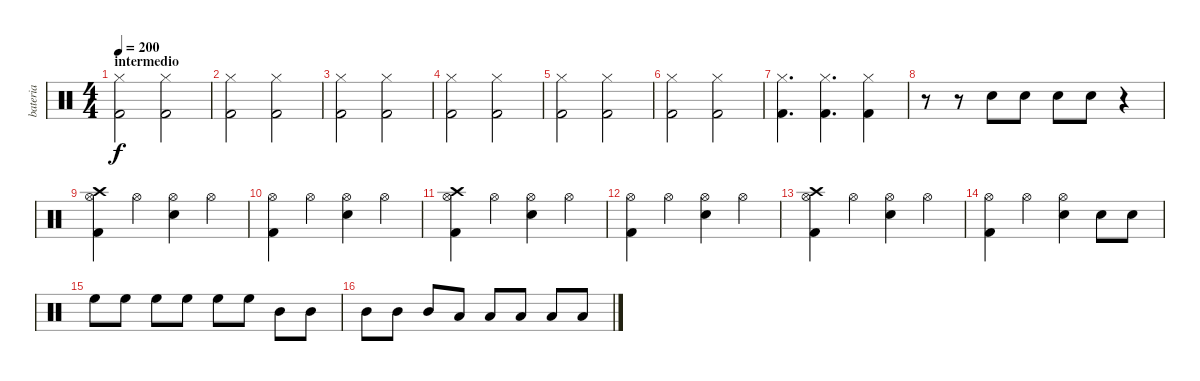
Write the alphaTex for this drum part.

\track ("bateria" "bateria") {instrument percussion}
\staff {score}
\articulation defaults
\ts (4 4)
\section ("" "intermedio")
\tempo 200
\clef neutral
\ks c
("Kick (hit) 2" "Hi-Hat (closed)").2{dy f} ("Kick (hit) 2" "Hi-Hat (closed)").2 |
("Kick (hit) 2" "Hi-Hat (closed)").2 ("Kick (hit) 2" "Hi-Hat (closed)").2 |
("Kick (hit) 2" "Hi-Hat (closed)").2 ("Kick (hit) 2" "Hi-Hat (closed)").2 |
("Kick (hit) 2" "Hi-Hat (closed)").2 ("Kick (hit) 2" "Hi-Hat (closed)").2 |
("Kick (hit) 2" "Hi-Hat (closed)").2 ("Kick (hit) 2" "Hi-Hat (closed)").2 |
("Kick (hit) 2" "Hi-Hat (closed)").2 ("Kick (hit) 2" "Hi-Hat (closed)").2 |
("Kick (hit) 2" "Hi-Hat (closed)").4{d} ("Kick (hit) 2" "Hi-Hat (closed)").4{d} ("Kick (hit) 2" "Hi-Hat (closed)").4 |
r.8 r.8 "Electric Snare (hit)".8 "Electric Snare (hit)".8 "Electric Snare (hit)".8 "Electric Snare (hit)".8 r.4 |
("Hi-Hat (open)" "Kick (hit) 2" "Crash high (hit)").4 "Hi-Hat (open)".4 ("Hi-Hat (open)" "Electric Snare (hit)").4 "Hi-Hat (open)".4 |
("Hi-Hat (open)" "Kick (hit) 2").4 "Hi-Hat (open)".4 ("Hi-Hat (open)" "Electric Snare (hit)").4 "Hi-Hat (open)".4 |
("Hi-Hat (open)" "Kick (hit) 2" "Crash high (hit)").4 "Hi-Hat (open)".4 ("Hi-Hat (open)" "Electric Snare (hit)").4 "Hi-Hat (open)".4 |
("Hi-Hat (open)" "Kick (hit) 2").4 "Hi-Hat (open)".4 ("Hi-Hat (open)" "Electric Snare (hit)").4 "Hi-Hat (open)".4 |
("Hi-Hat (open)" "Kick (hit) 2" "Crash high (hit)").4 "Hi-Hat (open)".4 ("Hi-Hat (open)" "Electric Snare (hit)").4 "Hi-Hat (open)".4 |
("Hi-Hat (open)" "Kick (hit) 2").4 "Hi-Hat (open)".4 ("Hi-Hat (open)" "Electric Snare (hit)").4 "Electric Snare (hit)".8 "Electric Snare (hit)".8 |
"High Floor Tom (hit)".8 "High Floor Tom (hit)".8 "High Floor Tom (hit)".8 "High Floor Tom (hit)".8 "High Floor Tom (hit)".8 "High Floor Tom (hit)".8 "Mid Tom (hit)".8 "Mid Tom (hit)".8 |
"Mid Tom (hit)".8 "Mid Tom (hit)".8 "Mid Tom (hit)".8 "Low Tom (hit)".8 "Low Tom (hit)".8 "Low Tom (hit)".8 "Low Tom (hit)".8 "Low Tom (hit)".8
